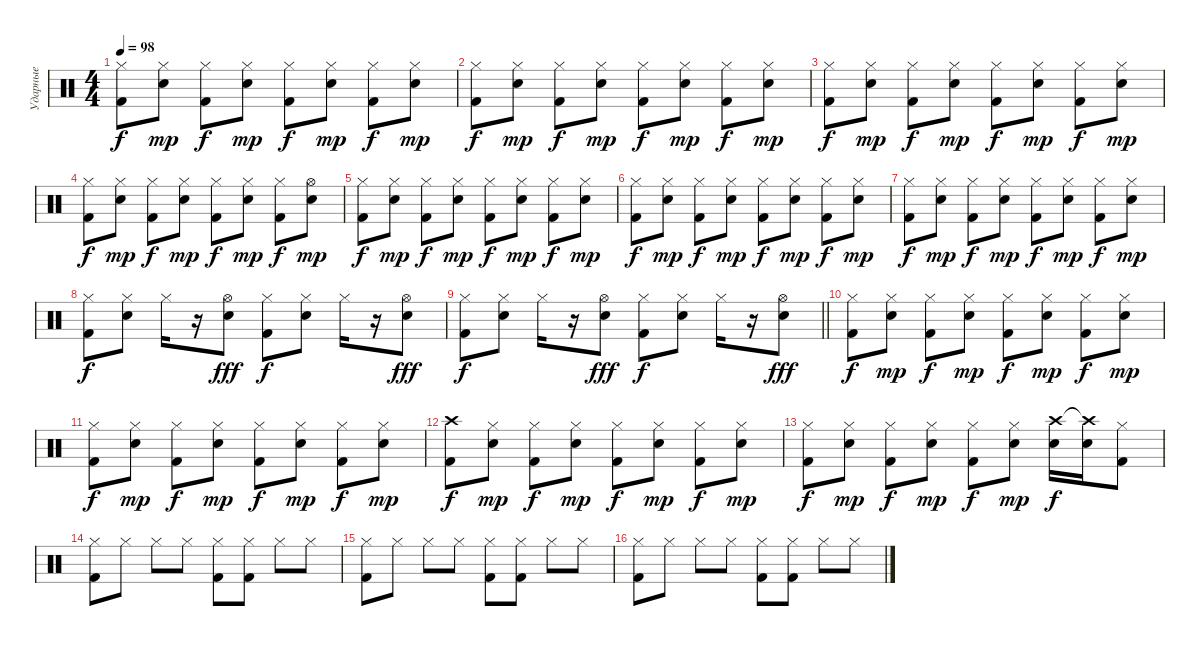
\track ("Ударные" "Ударные") {instrument percussion}
\staff {score}
\articulation defaults
\ts (4 4)
\tempo 98
\clef neutral
\ks c
("Hi-Hat (closed)" "Kick (hit) 2").8{dy f} ("Hi-Hat (closed)" "Snare (hit) 2").8{dy mp} ("Hi-Hat (closed)" "Kick (hit) 2").8{dy f} ("Hi-Hat (closed)" "Snare (hit) 2").8{dy mp} ("Hi-Hat (closed)" "Kick (hit) 2").8{dy f} ("Hi-Hat (closed)" "Snare (hit) 2").8{dy mp} ("Hi-Hat (closed)" "Kick (hit) 2").8{dy f} ("Hi-Hat (closed)" "Snare (hit) 2").8{dy mp} |
("Hi-Hat (closed)" "Kick (hit) 2").8{dy f} ("Hi-Hat (closed)" "Snare (hit) 2").8{dy mp} ("Hi-Hat (closed)" "Kick (hit) 2").8{dy f} ("Hi-Hat (closed)" "Snare (hit) 2").8{dy mp} ("Hi-Hat (closed)" "Kick (hit) 2").8{dy f} ("Hi-Hat (closed)" "Snare (hit) 2").8{dy mp} ("Hi-Hat (closed)" "Kick (hit) 2").8{dy f} ("Hi-Hat (closed)" "Snare (hit) 2").8{dy mp} |
("Hi-Hat (closed)" "Kick (hit) 2").8{dy f} ("Hi-Hat (closed)" "Snare (hit) 2").8{dy mp} ("Hi-Hat (closed)" "Kick (hit) 2").8{dy f} ("Hi-Hat (closed)" "Snare (hit) 2").8{dy mp} ("Hi-Hat (closed)" "Kick (hit) 2").8{dy f} ("Hi-Hat (closed)" "Snare (hit) 2").8{dy mp} ("Hi-Hat (closed)" "Kick (hit) 2").8{dy f} ("Hi-Hat (closed)" "Snare (hit) 2").8{dy mp} |
("Hi-Hat (closed)" "Kick (hit) 2").8{dy f} ("Hi-Hat (closed)" "Snare (hit) 2").8{dy mp} ("Hi-Hat (closed)" "Kick (hit) 2").8{dy f} ("Hi-Hat (closed)" "Snare (hit) 2").8{dy mp} ("Hi-Hat (closed)" "Kick (hit) 2").8{dy f} ("Hi-Hat (closed)" "Snare (hit) 2").8{dy mp} ("Hi-Hat (closed)" "Kick (hit) 2").8{dy f} ("Hi-Hat (open)" "Snare (hit) 2").8{dy mp} |
("Hi-Hat (closed)" "Kick (hit) 2").8{dy f} ("Hi-Hat (closed)" "Snare (hit) 2").8{dy mp} ("Hi-Hat (closed)" "Kick (hit) 2").8{dy f} ("Hi-Hat (closed)" "Snare (hit) 2").8{dy mp} ("Hi-Hat (closed)" "Kick (hit) 2").8{dy f} ("Hi-Hat (closed)" "Snare (hit) 2").8{dy mp} ("Hi-Hat (closed)" "Kick (hit) 2").8{dy f} ("Hi-Hat (closed)" "Snare (hit) 2").8{dy mp} |
("Hi-Hat (closed)" "Kick (hit) 2").8{dy f} ("Hi-Hat (closed)" "Snare (hit) 2").8{dy mp} ("Hi-Hat (closed)" "Kick (hit) 2").8{dy f} ("Hi-Hat (closed)" "Snare (hit) 2").8{dy mp} ("Hi-Hat (closed)" "Kick (hit) 2").8{dy f} ("Hi-Hat (closed)" "Snare (hit) 2").8{dy mp} ("Hi-Hat (closed)" "Kick (hit) 2").8{dy f} ("Hi-Hat (closed)" "Snare (hit) 2").8{dy mp} |
("Hi-Hat (closed)" "Kick (hit) 2").8{dy f} ("Hi-Hat (closed)" "Snare (hit) 2").8{dy mp} ("Hi-Hat (closed)" "Kick (hit) 2").8{dy f} ("Hi-Hat (closed)" "Snare (hit) 2").8{dy mp} ("Hi-Hat (closed)" "Kick (hit) 2").8{dy f} ("Hi-Hat (closed)" "Snare (hit) 2").8{dy mp} ("Hi-Hat (closed)" "Kick (hit) 2").8{dy f} ("Hi-Hat (closed)" "Snare (hit) 2").8{dy mp} |
("Hi-Hat (closed)" "Kick (hit) 2").8{dy f} ("Hi-Hat (closed)" "Snare (hit) 2").8 "Hi-Hat (closed)".16 r.16 ("Hi-Hat (open)" "Snare (hit) 2").8{dy fff} ("Hi-Hat (closed)" "Kick (hit) 2").8{dy f} ("Hi-Hat (closed)" "Snare (hit) 2").8 "Hi-Hat (closed)".16 r.16 ("Hi-Hat (open)" "Snare (hit) 2").8{dy fff} |
\barLineRight lightlight
("Hi-Hat (closed)" "Kick (hit) 2").8{dy f} ("Hi-Hat (closed)" "Snare (hit) 2").8 "Hi-Hat (closed)".16 r.16 ("Hi-Hat (open)" "Snare (hit) 2").8{dy fff} ("Hi-Hat (closed)" "Kick (hit) 2").8{dy f} ("Hi-Hat (closed)" "Snare (hit) 2").8 "Hi-Hat (closed)".16 r.16 ("Hi-Hat (open)" "Snare (hit) 2").8{dy fff} |
("Hi-Hat (closed)" "Kick (hit) 2").8{dy f} ("Hi-Hat (closed)" "Snare (hit) 2").8{dy mp} ("Hi-Hat (closed)" "Kick (hit) 2").8{dy f} ("Hi-Hat (closed)" "Snare (hit) 2").8{dy mp} ("Hi-Hat (closed)" "Kick (hit) 2").8{dy f} ("Hi-Hat (closed)" "Snare (hit) 2").8{dy mp} ("Hi-Hat (closed)" "Kick (hit) 2").8{dy f} ("Hi-Hat (closed)" "Snare (hit) 2").8{dy mp} |
("Hi-Hat (closed)" "Kick (hit) 2").8{dy f} ("Hi-Hat (closed)" "Snare (hit) 2").8{dy mp} ("Hi-Hat (closed)" "Kick (hit) 2").8{dy f} ("Hi-Hat (closed)" "Snare (hit) 2").8{dy mp} ("Hi-Hat (closed)" "Kick (hit) 2").8{dy f} ("Hi-Hat (closed)" "Snare (hit) 2").8{dy mp} ("Hi-Hat (closed)" "Kick (hit) 2").8{dy f} ("Hi-Hat (closed)" "Snare (hit) 2").8{dy mp} |
("Crash high (hit)" "Kick (hit) 2").8{dy f} ("Hi-Hat (closed)" "Snare (hit) 2").8{dy mp} ("Hi-Hat (closed)" "Kick (hit) 2").8{dy f} ("Hi-Hat (closed)" "Snare (hit) 2").8{dy mp} ("Hi-Hat (closed)" "Kick (hit) 2").8{dy f} ("Hi-Hat (closed)" "Snare (hit) 2").8{dy mp} ("Hi-Hat (closed)" "Kick (hit) 2").8{dy f} ("Hi-Hat (closed)" "Snare (hit) 2").8{dy mp} |
("Hi-Hat (closed)" "Kick (hit) 2").8{dy f} ("Hi-Hat (closed)" "Snare (hit) 2").8{dy mp} ("Hi-Hat (closed)" "Kick (hit) 2").8{dy f} ("Hi-Hat (closed)" "Snare (hit) 2").8{dy mp} ("Hi-Hat (closed)" "Kick (hit) 2").8{dy f} ("Hi-Hat (closed)" "Snare (hit) 2").8{dy mp} ("Crash high (hit)" "Electric Snare (hit)").16{dy f} ("Crash high (hit)"{t} "Snare (hit) 2").16 ("Hi-Hat (closed)" "Kick (hit) 2").8 |
("Hi-Hat (closed)" "Kick (hit) 2").8 "Hi-Hat (closed)".8 "Hi-Hat (closed)".8 "Hi-Hat (closed)".8 ("Hi-Hat (closed)" "Kick (hit) 2").8 ("Hi-Hat (closed)" "Kick (hit) 2").8 "Hi-Hat (closed)".8 "Hi-Hat (closed)".8 |
("Hi-Hat (closed)" "Kick (hit) 2").8 "Hi-Hat (closed)".8 "Hi-Hat (closed)".8 "Hi-Hat (closed)".8 ("Hi-Hat (closed)" "Kick (hit) 2").8 ("Hi-Hat (closed)" "Kick (hit) 2").8 "Hi-Hat (closed)".8 "Hi-Hat (closed)".8 |
("Hi-Hat (closed)" "Kick (hit) 2").8 "Hi-Hat (closed)".8 "Hi-Hat (closed)".8 "Hi-Hat (closed)".8 ("Hi-Hat (closed)" "Kick (hit) 2").8 ("Hi-Hat (closed)" "Kick (hit) 2").8 "Hi-Hat (closed)".8 "Hi-Hat (closed)".8
